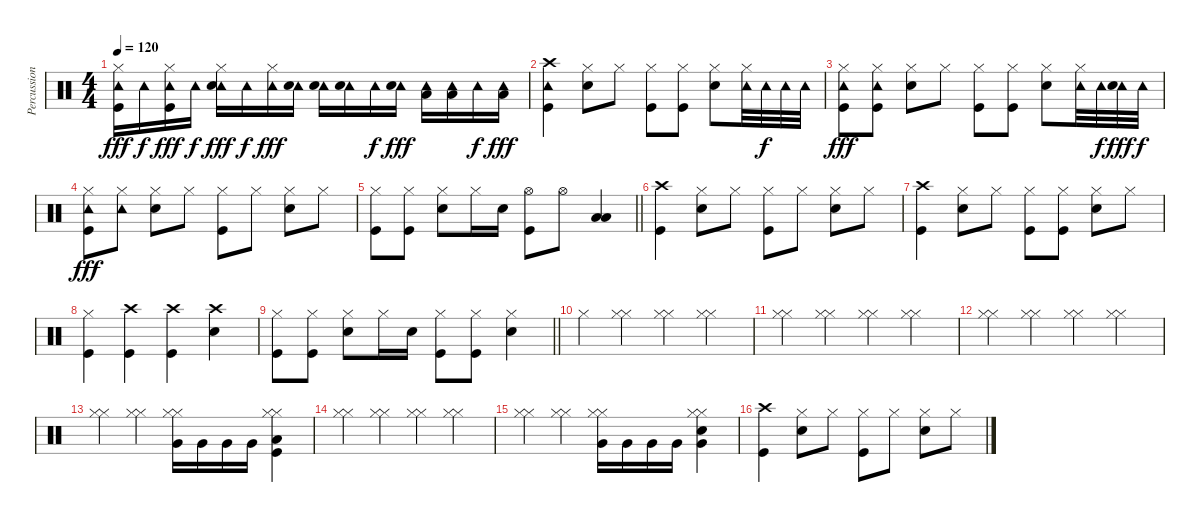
\track ("Percussioni" "Percussion") {instrument percussion}
\staff {score}
\articulation defaults
\ts (4 4)
\tempo 120
\clef neutral
\ks c
("Hi-Hat (closed)" "Tambourine (hit)" "Kick (hit)").16{dy fff} "Tambourine (hit)".16{dy f} ("Hi-Hat (closed)" "Tambourine (hit)" "Kick (hit)").16{dy fff} "Tambourine (hit)".16{dy f} ("Hi-Hat (closed)" "Tambourine (hit)" "Snare (hit) 2").16{dy fff} "Tambourine (hit)".16{dy f} ("Hi-Hat (closed)" "Tambourine (hit)").16{dy fff} ("Tambourine (hit)" "Snare (hit) 2").16 ("Tambourine (hit)" "Snare (hit) 2").16 ("Tambourine (hit)" "Snare (hit) 2").16 "Tambourine (hit)".16{dy f} ("Tambourine (hit)" "Snare (hit) 2").16{dy fff} ("Tambourine (hit)" "Low Tom (hit)").16 ("Tambourine (hit)" "Low Tom (hit)").16 "Tambourine (hit)".16{dy f} ("Tambourine (hit)" "Low Tom (hit)").16{dy fff} |
("Crash high (hit)" "Tambourine (hit)" "Kick (hit)").4 ("Hi-Hat (closed)" "Snare (hit) 2").8 "Hi-Hat (closed)".8 ("Hi-Hat (closed)" "Kick (hit)").8 ("Hi-Hat (closed)" "Kick (hit)").8 ("Hi-Hat (closed)" "Snare (hit) 2").8 ("Hi-Hat (closed)" "Tambourine (hit)").32 "Tambourine (hit)".32{dy f} "Tambourine (hit)".32 "Tambourine (hit)".32 |
("Hi-Hat (closed)" "Tambourine (hit)" "Kick (hit)").8{dy fff} ("Hi-Hat (closed)" "Tambourine (hit)" "Kick (hit)").8 ("Hi-Hat (closed)" "Snare (hit) 2").8 "Hi-Hat (closed)".8 ("Hi-Hat (closed)" "Kick (hit)").8 ("Hi-Hat (closed)" "Kick (hit)").8 ("Hi-Hat (closed)" "Snare (hit) 2").8 ("Hi-Hat (closed)" "Tambourine (hit)").32 "Tambourine (hit)".32{dy f} ("Tambourine (hit)" "Snare (hit) 2").32{dy fff} "Tambourine (hit)".32{dy f} |
("Hi-Hat (closed)" "Tambourine (hit)" "Kick (hit)").8{dy fff} ("Hi-Hat (closed)" "Tambourine (hit)").8 ("Hi-Hat (closed)" "Snare (hit) 2").8 "Hi-Hat (closed)".8 ("Hi-Hat (closed)" "Kick (hit)").8 "Hi-Hat (closed)".8 ("Hi-Hat (closed)" "Snare (hit) 2").8 "Hi-Hat (closed)".8 |
\barLineRight lightlight
("Hi-Hat (closed)" "Kick (hit)").8 ("Hi-Hat (closed)" "Kick (hit)").8 ("Hi-Hat (closed)" "Snare (hit) 2").8 "Hi-Hat (closed)".16 "Snare (hit) 2".16 ("Hi-Hat (open)" "Kick (hit)").8 "Hi-Hat (open)".8 ("Low Tom (hit)" "Low Floor Tom (hit)").4 |
("Crash high (hit)" "Kick (hit)").4 ("Hi-Hat (closed)" "Snare (hit) 2").8 "Hi-Hat (closed)".8 ("Hi-Hat (closed)" "Kick (hit)").8 "Hi-Hat (closed)".8 ("Hi-Hat (closed)" "Snare (hit) 2").8 "Hi-Hat (closed)".8 |
("Crash high (hit)" "Kick (hit)").4 ("Hi-Hat (closed)" "Snare (hit) 2").8 "Hi-Hat (closed)".8 ("Hi-Hat (closed)" "Kick (hit)").8 ("Hi-Hat (closed)" "Kick (hit)").8 ("Hi-Hat (closed)" "Snare (hit) 2").8 "Hi-Hat (closed)".8 |
("Hi-Hat (closed)" "Kick (hit)").4 ("Crash high (hit)" "Kick (hit)").4 ("Crash high (hit)" "Kick (hit)").4 ("Crash high (hit)" "Snare (hit) 2").4 |
\barLineRight lightlight
("Hi-Hat (closed)" "Kick (hit)").8 ("Hi-Hat (closed)" "Kick (hit)").8 ("Hi-Hat (closed)" "Snare (hit) 2").8 "Hi-Hat (closed)".16 "Snare (hit) 2".16 ("Hi-Hat (closed)" "Kick (hit)").8 ("Hi-Hat (closed)" "Kick (hit)").8 ("Hi-Hat (closed)" "Snare (hit) 2").4 |
"Hi-Hat (closed)".4 ("Hi-Hat (closed)" "Hi-Hat (closed)").4 ("Hi-Hat (closed)" "Hi-Hat (closed)").4 ("Hi-Hat (closed)" "Hi-Hat (closed)").4 |
("Hi-Hat (closed)" "Hi-Hat (closed)").4 ("Hi-Hat (closed)" "Hi-Hat (closed)").4 ("Hi-Hat (closed)" "Hi-Hat (closed)").4 ("Hi-Hat (closed)" "Hi-Hat (closed)").4 |
("Hi-Hat (closed)" "Hi-Hat (closed)").4 ("Hi-Hat (closed)" "Hi-Hat (closed)").4 ("Hi-Hat (closed)" "Hi-Hat (closed)").4 ("Hi-Hat (closed)" "Hi-Hat (closed)").4 |
("Hi-Hat (closed)" "Hi-Hat (closed)").4 ("Hi-Hat (closed)" "Hi-Hat (closed)").4 ("Hi-Hat (closed)" "Hi-Hat (closed)" "Very Low Tom (hit)").16 "Very Low Tom (hit)".16 "Very Low Tom (hit)".16 "Very Low Tom (hit)".16 ("Hi-Hat (closed)" "Hi-Hat (closed)" "Low Floor Tom (hit)" "Kick (hit)").4 |
("Hi-Hat (closed)" "Hi-Hat (closed)").4 ("Hi-Hat (closed)" "Hi-Hat (closed)").4 ("Hi-Hat (closed)" "Hi-Hat (closed)").4 ("Hi-Hat (closed)" "Hi-Hat (closed)").4 |
("Hi-Hat (closed)" "Hi-Hat (closed)").4 ("Hi-Hat (closed)" "Hi-Hat (closed)").4 ("Hi-Hat (closed)" "Hi-Hat (closed)" "Very Low Tom (hit)").16 "Very Low Tom (hit)".16 "Very Low Tom (hit)".16 "Very Low Tom (hit)".16 ("Hi-Hat (closed)" "Hi-Hat (closed)" "Very Low Tom (hit)" "Snare (hit) 2").4 |
("Crash high (hit)" "Kick (hit)").4 ("Hi-Hat (closed)" "Snare (hit) 2").8 "Hi-Hat (closed)".8 ("Hi-Hat (closed)" "Kick (hit)").8 "Hi-Hat (closed)".8 ("Hi-Hat (closed)" "Snare (hit) 2").8 "Hi-Hat (closed)".8
